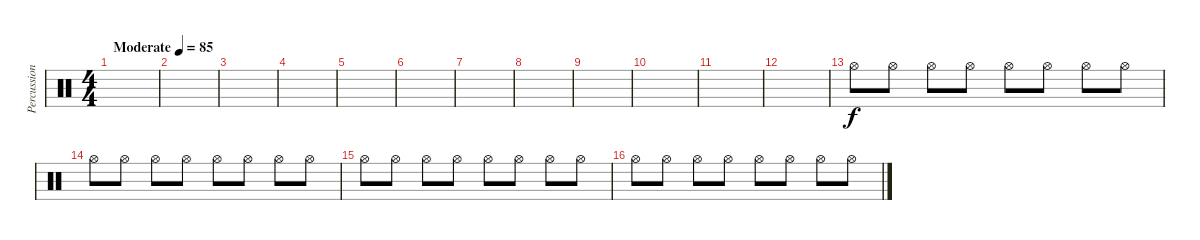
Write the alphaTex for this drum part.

\track ("Percussion" "Percussion") {instrument percussion}
\staff {score}
\articulation defaults
\ts (4 4)
\tempo (85 "Moderate")
\clef neutral
\ks c
|
|
|
|
|
|
|
|
|
|
|
|
"Hi-Hat (open)".8{volume 3 balance 12} "Hi-Hat (open)".8 "Hi-Hat (open)".8 "Hi-Hat (open)".8 "Hi-Hat (open)".8 "Hi-Hat (open)".8 "Hi-Hat (open)".8 "Hi-Hat (open)".8 |
"Hi-Hat (open)".8 "Hi-Hat (open)".8 "Hi-Hat (open)".8 "Hi-Hat (open)".8 "Hi-Hat (open)".8 "Hi-Hat (open)".8 "Hi-Hat (open)".8 "Hi-Hat (open)".8 |
"Hi-Hat (open)".8 "Hi-Hat (open)".8 "Hi-Hat (open)".8 "Hi-Hat (open)".8 "Hi-Hat (open)".8 "Hi-Hat (open)".8 "Hi-Hat (open)".8 "Hi-Hat (open)".8 |
"Hi-Hat (open)".8 "Hi-Hat (open)".8 "Hi-Hat (open)".8 "Hi-Hat (open)".8 "Hi-Hat (open)".8 "Hi-Hat (open)".8 "Hi-Hat (open)".8 "Hi-Hat (open)".8
